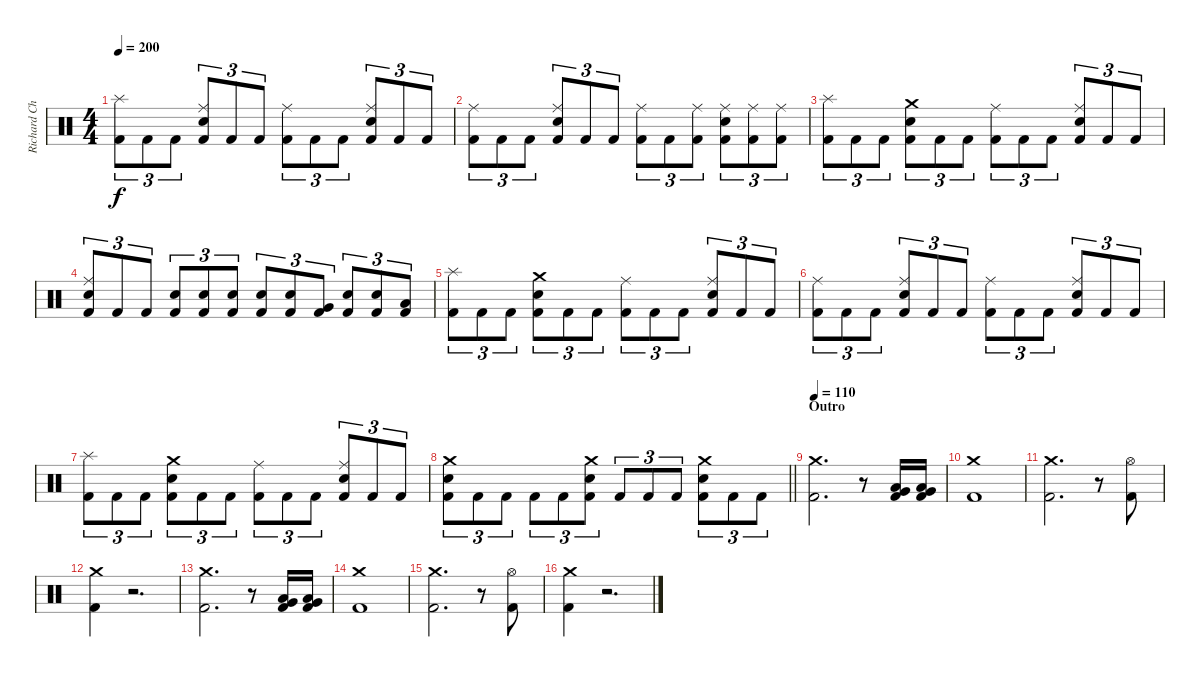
\track ("Richard Christy" "Richard Ch") {instrument percussion}
\staff {score}
\articulation defaults
\ts (4 4)
\tempo 200
\clef neutral
\ks c
("Splash (hit)" "Kick (hit) 2").8{tu (3 2) dy f} "Kick (hit) 2".8{tu (3 2)} "Kick (hit) 2".8{tu (3 2)} ("Ride (middle)" "Electric Snare (hit)" "Kick (hit) 2").8{tu (3 2)} "Kick (hit) 2".8{tu (3 2)} "Kick (hit) 2".8{tu (3 2)} ("Ride (middle)" "Kick (hit) 2").8{tu (3 2)} "Kick (hit) 2".8{tu (3 2)} "Kick (hit) 2".8{tu (3 2)} ("Ride (middle)" "Electric Snare (hit)" "Kick (hit) 2").8{tu (3 2)} "Kick (hit) 2".8{tu (3 2)} "Kick (hit) 2".8{tu (3 2)} |
("Ride (middle)" "Kick (hit) 2").8{tu (3 2)} "Kick (hit) 2".8{tu (3 2)} "Kick (hit) 2".8{tu (3 2)} ("Ride (middle)" "Electric Snare (hit)" "Kick (hit) 2").8{tu (3 2)} "Kick (hit) 2".8{tu (3 2)} "Kick (hit) 2".8{tu (3 2)} ("Ride (middle)" "Kick (hit) 2").8{tu (3 2)} "Kick (hit) 2".8{tu (3 2)} ("Ride (middle)" "Kick (hit) 2").8{tu (3 2)} ("Ride (middle)" "Electric Snare (hit)" "Kick (hit) 2").8{tu (3 2)} ("Ride (middle)" "Kick (hit) 2").8{tu (3 2)} ("Ride (middle)" "Kick (hit) 2").8{tu (3 2)} |
("Splash (hit)" "Kick (hit) 2").8{tu (3 2)} "Kick (hit) 2".8{tu (3 2)} "Kick (hit) 2".8{tu (3 2)} ("Crash medium (hit)" "Electric Snare (hit)" "Kick (hit) 2").8{tu (3 2)} "Kick (hit) 2".8{tu (3 2)} "Kick (hit) 2".8{tu (3 2)} ("Ride (middle)" "Kick (hit) 2").8{tu (3 2)} "Kick (hit) 2".8{tu (3 2)} "Kick (hit) 2".8{tu (3 2)} ("Ride (middle)" "Electric Snare (hit)" "Kick (hit) 2").8{tu (3 2)} "Kick (hit) 2".8{tu (3 2)} "Kick (hit) 2".8{tu (3 2)} |
("Ride (middle)" "Electric Snare (hit)" "Kick (hit) 2").8{tu (3 2)} "Kick (hit) 2".8{tu (3 2)} "Kick (hit) 2".8{tu (3 2)} ("Electric Snare (hit)" "Kick (hit) 2").8{tu (3 2)} ("Electric Snare (hit)" "Kick (hit) 2").8{tu (3 2)} ("Electric Snare (hit)" "Kick (hit) 2").8{tu (3 2)} ("Electric Snare (hit)" "Kick (hit) 2").8{tu (3 2)} ("Electric Snare (hit)" "Kick (hit) 2").8{tu (3 2)} ("Very Low Tom (hit)" "Kick (hit) 2").8{tu (3 2)} ("Electric Snare (hit)" "Kick (hit) 2").8{tu (3 2)} ("Electric Snare (hit)" "Kick (hit) 2").8{tu (3 2)} ("Low Floor Tom (hit)" "Kick (hit) 2").8{tu (3 2)} |
("Splash (hit)" "Kick (hit) 2").8{tu (3 2)} "Kick (hit) 2".8{tu (3 2)} "Kick (hit) 2".8{tu (3 2)} ("Crash medium (hit)" "Electric Snare (hit)" "Kick (hit) 2").8{tu (3 2)} "Kick (hit) 2".8{tu (3 2)} "Kick (hit) 2".8{tu (3 2)} ("Ride (middle)" "Kick (hit) 2").8{tu (3 2)} "Kick (hit) 2".8{tu (3 2)} "Kick (hit) 2".8{tu (3 2)} ("Ride (middle)" "Electric Snare (hit)" "Kick (hit) 2").8{tu (3 2)} "Kick (hit) 2".8{tu (3 2)} "Kick (hit) 2".8{tu (3 2)} |
("Ride (middle)" "Kick (hit) 2").8{tu (3 2)} "Kick (hit) 2".8{tu (3 2)} "Kick (hit) 2".8{tu (3 2)} ("Ride (middle)" "Electric Snare (hit)" "Kick (hit) 2").8{tu (3 2)} "Kick (hit) 2".8{tu (3 2)} "Kick (hit) 2".8{tu (3 2)} ("Ride (middle)" "Kick (hit) 2").8{tu (3 2)} "Kick (hit) 2".8{tu (3 2)} "Kick (hit) 2".8{tu (3 2)} ("Ride (middle)" "Electric Snare (hit)" "Kick (hit) 2").8{tu (3 2)} "Kick (hit) 2".8{tu (3 2)} "Kick (hit) 2".8{tu (3 2)} |
("Splash (hit)" "Kick (hit) 2").8{tu (3 2)} "Kick (hit) 2".8{tu (3 2)} "Kick (hit) 2".8{tu (3 2)} ("Crash medium (hit)" "Electric Snare (hit)" "Kick (hit) 2").8{tu (3 2)} "Kick (hit) 2".8{tu (3 2)} "Kick (hit) 2".8{tu (3 2)} ("Ride (middle)" "Kick (hit) 2").8{tu (3 2)} "Kick (hit) 2".8{tu (3 2)} "Kick (hit) 2".8{tu (3 2)} ("Ride (middle)" "Electric Snare (hit)" "Kick (hit) 2").8{tu (3 2)} "Kick (hit) 2".8{tu (3 2)} "Kick (hit) 2".8{tu (3 2)} |
\barLineRight lightlight
("Crash medium (hit)" "Electric Snare (hit)" "Kick (hit) 2").8{tu (3 2)} "Kick (hit) 2".8{tu (3 2)} "Kick (hit) 2".8{tu (3 2)} "Kick (hit) 2".8{tu (3 2)} "Kick (hit) 2".8{tu (3 2)} ("Crash medium (hit)" "Electric Snare (hit)" "Kick (hit) 2").8{tu (3 2)} "Kick (hit) 2".8{tu (3 2)} "Kick (hit) 2".8{tu (3 2)} "Kick (hit) 2".8{tu (3 2)} ("Crash medium (hit)" "Electric Snare (hit)" "Kick (hit) 2").8{tu (3 2)} "Kick (hit) 2".8{tu (3 2)} "Kick (hit) 2".8{tu (3 2)} |
\section ("" "Outro")
\tempo 110
("Crash medium (hit)" "Kick (hit) 2").2{d} r.8 ("Very Low Tom (hit)" "Low Floor Tom (hit)" "Kick (hit) 2").16 ("Very Low Tom (hit)" "Low Floor Tom (hit)" "Kick (hit) 2").16 |
("Crash medium (hit)" "Kick (hit) 2").1 |
("Crash medium (hit)" "Kick (hit) 2").2{d} r.8 ("Hi-Hat (open)" "Kick (hit) 2").8 |
("Crash medium (hit)" "Kick (hit) 2").4 r.2{d} |
("Crash medium (hit)" "Kick (hit) 2").2{d} r.8 ("Very Low Tom (hit)" "Low Floor Tom (hit)" "Kick (hit) 2").16 ("Very Low Tom (hit)" "Low Floor Tom (hit)" "Kick (hit) 2").16 |
("Crash medium (hit)" "Kick (hit) 2").1 |
("Crash medium (hit)" "Kick (hit) 2").2{d} r.8 ("Hi-Hat (open)" "Kick (hit) 2").8 |
("Crash medium (hit)" "Kick (hit) 2").4 r.2{d}
